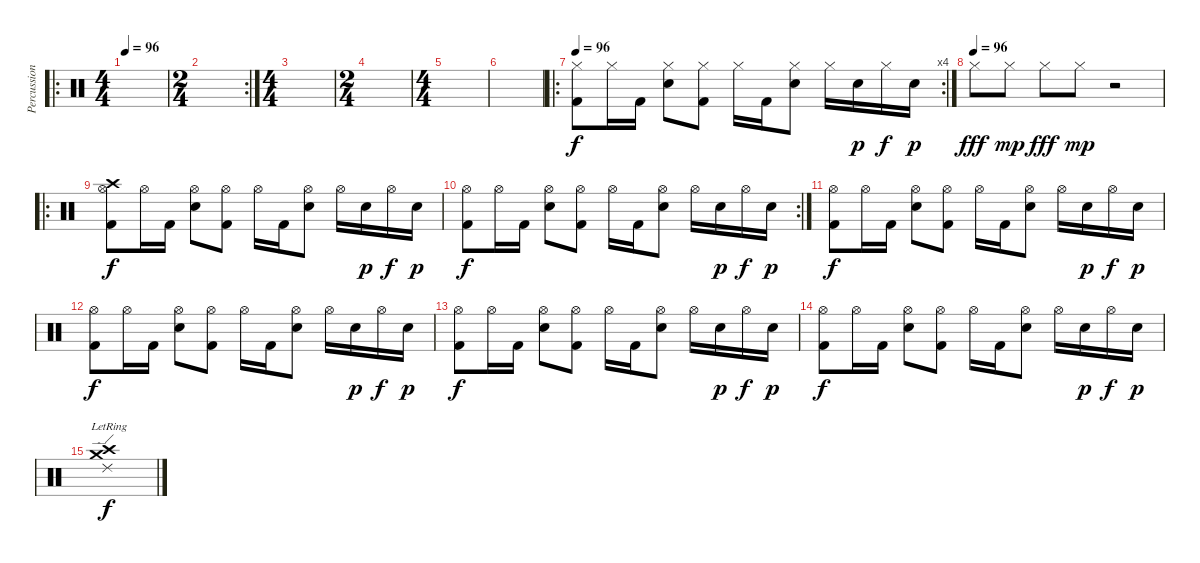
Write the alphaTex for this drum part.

\track ("Percussion" "Percussion") {instrument percussion}
\staff {score}
\articulation defaults
\ro
\ts (4 4)
\tempo 96
\tempo 104
\tempo 96
\clef neutral
\ks c
|
\rc 2
\ts (2 4)
|
\ts (4 4)
|
\ts (2 4)
|
\ts (4 4)
|
|
\ro
\rc 4
\tempo 96
("Hi-Hat (closed)" "Kick (hit) 2").8 "Hi-Hat (closed)".16 "Kick (hit) 2".16 ("Hi-Hat (closed)" "Snare (hit) 2").8 ("Hi-Hat (closed)" "Kick (hit) 2").8 "Hi-Hat (closed)".16 "Kick (hit) 2".16 ("Hi-Hat (closed)" "Snare (hit) 2").8 "Hi-Hat (closed)".16 "Electric Snare (hit)".16{dy p} "Hi-Hat (closed)".16{dy f} "Electric Snare (hit)".16{dy p} |
\tempo (96)
"Hi-Hat (closed)".8{dy fff} "Hi-Hat (closed)".8{dy mp} "Hi-Hat (closed)".8{dy fff} "Hi-Hat (closed)".8{dy mp} r.2 |
\ro
("Crash high (hit)" "Hi-Hat (open)" "Kick (hit) 2").8{dy f} "Hi-Hat (open)".16 "Kick (hit) 2".16 ("Hi-Hat (open)" "Snare (hit) 2").8 ("Hi-Hat (open)" "Kick (hit) 2").8 "Hi-Hat (open)".16 "Kick (hit) 2".16 ("Hi-Hat (open)" "Snare (hit) 2").8 "Hi-Hat (open)".16 "Electric Snare (hit)".16{dy p} "Hi-Hat (open)".16{dy f} "Electric Snare (hit)".16{dy p} |
\rc 2
("Hi-Hat (open)" "Kick (hit) 2").8{dy f} "Hi-Hat (open)".16 "Kick (hit) 2".16 ("Hi-Hat (open)" "Snare (hit) 2").8 ("Hi-Hat (open)" "Kick (hit) 2").8 "Hi-Hat (open)".16 "Kick (hit) 2".16 ("Hi-Hat (open)" "Snare (hit) 2").8 "Hi-Hat (open)".16 "Electric Snare (hit)".16{dy p} "Hi-Hat (open)".16{dy f} "Electric Snare (hit)".16{dy p} |
("Hi-Hat (open)" "Kick (hit) 2").8{dy f} "Hi-Hat (open)".16 "Kick (hit) 2".16 ("Hi-Hat (open)" "Snare (hit) 2").8 ("Hi-Hat (open)" "Kick (hit) 2").8 "Hi-Hat (open)".16 "Kick (hit) 2".16 ("Hi-Hat (open)" "Snare (hit) 2").8 "Hi-Hat (open)".16 "Electric Snare (hit)".16{dy p} "Hi-Hat (open)".16{dy f} "Electric Snare (hit)".16{dy p} |
("Hi-Hat (open)" "Kick (hit) 2").8{dy f} "Hi-Hat (open)".16 "Kick (hit) 2".16 ("Hi-Hat (open)" "Snare (hit) 2").8 ("Hi-Hat (open)" "Kick (hit) 2").8 "Hi-Hat (open)".16 "Kick (hit) 2".16 ("Hi-Hat (open)" "Snare (hit) 2").8 "Hi-Hat (open)".16 "Electric Snare (hit)".16{dy p} "Hi-Hat (open)".16{dy f} "Electric Snare (hit)".16{dy p} |
("Hi-Hat (open)" "Kick (hit) 2").8{dy f} "Hi-Hat (open)".16 "Kick (hit) 2".16 ("Hi-Hat (open)" "Snare (hit) 2").8 ("Hi-Hat (open)" "Kick (hit) 2").8 "Hi-Hat (open)".16 "Kick (hit) 2".16 ("Hi-Hat (open)" "Snare (hit) 2").8 "Hi-Hat (open)".16 "Electric Snare (hit)".16{dy p} "Hi-Hat (open)".16{dy f} "Electric Snare (hit)".16{dy p} |
("Hi-Hat (open)" "Kick (hit) 2").8{dy f} "Hi-Hat (open)".16 "Kick (hit) 2".16 ("Hi-Hat (open)" "Snare (hit) 2").8 ("Hi-Hat (open)" "Kick (hit) 2").8 "Hi-Hat (open)".16 "Kick (hit) 2".16 ("Hi-Hat (open)" "Snare (hit) 2").8 "Hi-Hat (open)".16 "Electric Snare (hit)".16{dy p} "Hi-Hat (open)".16{dy f} "Electric Snare (hit)".16{dy p} |
("Crash high (hit)" "Ride (edge) 2"{lr} "Crash medium (hit)").1{dy f}
